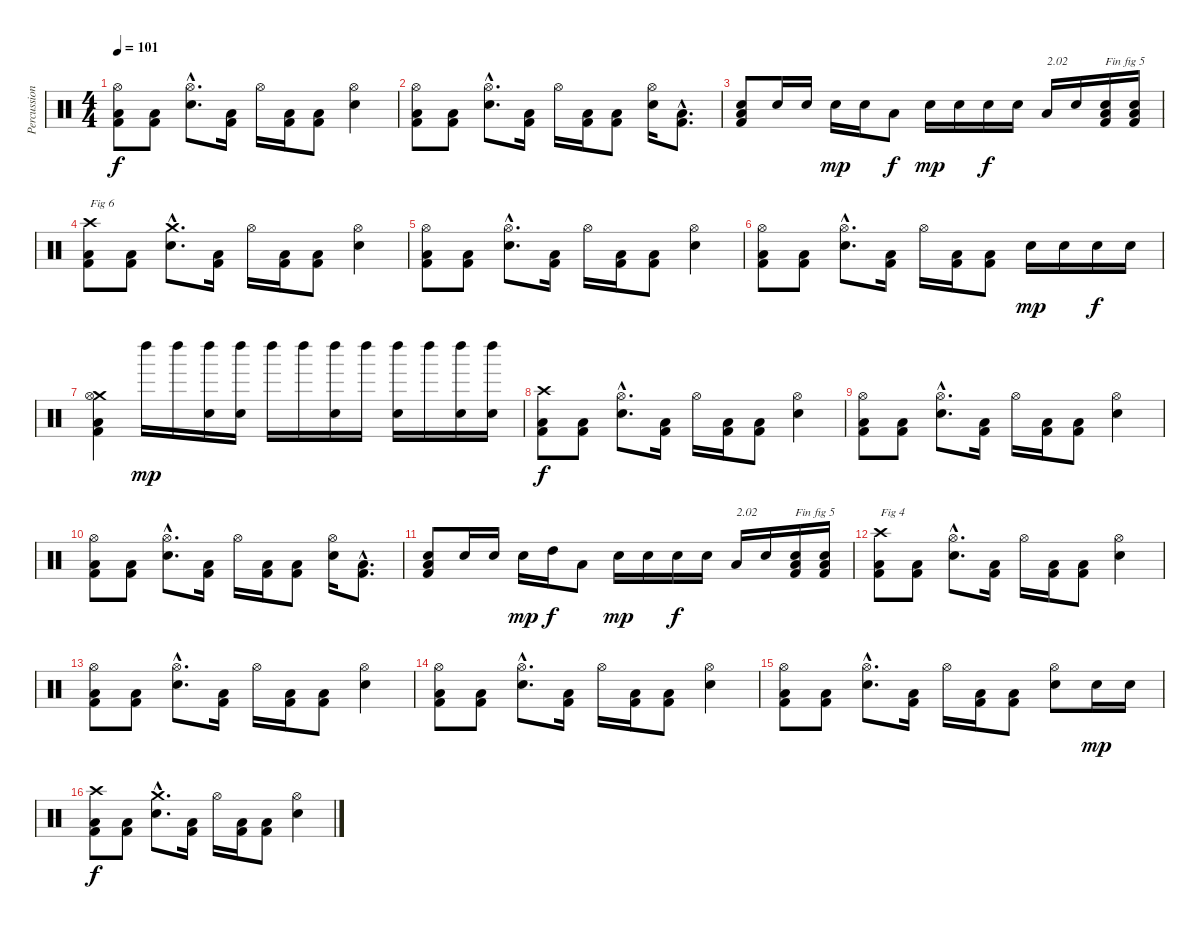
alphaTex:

\track ("Percussion" "Percussion") {instrument percussion}
\staff {score}
\articulation defaults
\ts (4 4)
\tempo 101
\clef neutral
\ks c
("Kick (hit) 2" "Low Floor Tom (hit)" "Hi-Hat (open)").8{dy f} ("Kick (hit) 2" "Low Floor Tom (hit)").8 ("Snare (hit) 2"{hac} "Hi-Hat (open)"{hac}).8{d} ("Kick (hit) 2" "Low Floor Tom (hit)").16 "Hi-Hat (open)".16 ("Kick (hit) 2" "Low Floor Tom (hit)").16 ("Kick (hit) 2" "Low Floor Tom (hit)").8 ("Snare (hit) 2" "Hi-Hat (open)").4 |
("Kick (hit) 2" "Low Floor Tom (hit)" "Hi-Hat (open)").8 ("Kick (hit) 2" "Low Floor Tom (hit)").8 ("Snare (hit) 2"{hac} "Hi-Hat (open)"{hac}).8{d} ("Kick (hit) 2" "Low Floor Tom (hit)").16 "Hi-Hat (open)".16 ("Kick (hit) 2" "Low Floor Tom (hit)").16 ("Kick (hit) 2" "Low Floor Tom (hit)").8 ("Snare (hit) 2" "Hi-Hat (open)").16 ("Kick (hit) 2"{hac} "Low Floor Tom (hit)"{hac}).8{d} |
("Kick (hit) 2" "Low Floor Tom (hit)" "Snare (hit) 2").8 "Snare (hit) 2".16 "Snare (hit) 2".16 "Snare (hit) 2".16{dy mp} "Snare (hit) 2".16 "Low Tom (hit)".8{dy f} "Snare (hit) 2".16{dy mp} "Snare (hit) 2".16 "Snare (hit) 2".16{dy f} "Snare (hit) 2".16 "Low Tom (hit)".16{txt "2.02"} "Snare (hit) 2".16 ("Kick (hit) 2" "Low Floor Tom (hit)" "Snare (hit) 2").16{txt "Fin fig 5"} ("Kick (hit) 2" "Low Floor Tom (hit)" "Snare (hit) 2").16 |
("Kick (hit) 2" "Low Floor Tom (hit)" "Crash high (hit)").8{txt "Fig 6"} ("Kick (hit) 2" "Low Floor Tom (hit)").8 ("Snare (hit) 2"{hac} "Crash medium (hit)"{hac}).8{d} ("Kick (hit) 2" "Low Floor Tom (hit)").16 "Hi-Hat (open)".16 ("Kick (hit) 2" "Low Floor Tom (hit)").16 ("Kick (hit) 2" "Low Floor Tom (hit)").8 ("Snare (hit) 2" "Hi-Hat (open)").4 |
("Kick (hit) 2" "Low Floor Tom (hit)" "Hi-Hat (open)").8 ("Kick (hit) 2" "Low Floor Tom (hit)").8 ("Snare (hit) 2"{hac} "Hi-Hat (open)"{hac}).8{d} ("Kick (hit) 2" "Low Floor Tom (hit)").16 "Hi-Hat (open)".16 ("Kick (hit) 2" "Low Floor Tom (hit)").16 ("Kick (hit) 2" "Low Floor Tom (hit)").8 ("Snare (hit) 2" "Hi-Hat (open)").4 |
("Kick (hit) 2" "Low Floor Tom (hit)" "Hi-Hat (open)").8 ("Kick (hit) 2" "Low Floor Tom (hit)").8 ("Snare (hit) 2"{hac} "Hi-Hat (open)"{hac}).8{d} ("Kick (hit) 2" "Low Floor Tom (hit)").16 "Hi-Hat (open)".16 ("Kick (hit) 2" "Low Floor Tom (hit)").16 ("Kick (hit) 2" "Low Floor Tom (hit)").8 "Snare (hit) 2".16{dy mp} "Snare (hit) 2".16 "Snare (hit) 2".16{dy f} "Snare (hit) 2".16 |
("Kick (hit) 2" "Low Floor Tom (hit)" "Crash medium (hit)" "Hi-Hat (open)").4 "Left Maraca (hit)".16{dy mp} "Left Maraca (hit)".16 ("Snare (hit) 2" "Left Maraca (hit)").16 ("Snare (hit) 2" "Left Maraca (hit)").16 "Left Maraca (hit)".16 "Left Maraca (hit)".16 ("Snare (hit) 2" "Left Maraca (hit)").16 "Left Maraca (hit)".16 ("Snare (hit) 2" "Left Maraca (hit)").16 "Left Maraca (hit)".16 ("Snare (hit) 2" "Left Maraca (hit)").16 ("Snare (hit) 2" "Left Maraca (hit)").16 |
("Kick (hit) 2" "Low Floor Tom (hit)" "Crash high (hit)").8{dy f} ("Kick (hit) 2" "Low Floor Tom (hit)").8 ("Snare (hit) 2"{hac} "Hi-Hat (open)"{hac}).8{d} ("Kick (hit) 2" "Low Floor Tom (hit)").16 "Hi-Hat (open)".16 ("Kick (hit) 2" "Low Floor Tom (hit)").16 ("Kick (hit) 2" "Low Floor Tom (hit)").8 ("Snare (hit) 2" "Hi-Hat (open)").4 |
("Kick (hit) 2" "Low Floor Tom (hit)" "Hi-Hat (open)").8 ("Kick (hit) 2" "Low Floor Tom (hit)").8 ("Snare (hit) 2"{hac} "Hi-Hat (open)"{hac}).8{d} ("Kick (hit) 2" "Low Floor Tom (hit)").16 "Hi-Hat (open)".16 ("Kick (hit) 2" "Low Floor Tom (hit)").16 ("Kick (hit) 2" "Low Floor Tom (hit)").8 ("Snare (hit) 2" "Hi-Hat (open)").4 |
("Kick (hit) 2" "Low Floor Tom (hit)" "Hi-Hat (open)").8 ("Kick (hit) 2" "Low Floor Tom (hit)").8 ("Snare (hit) 2"{hac} "Hi-Hat (open)"{hac}).8{d} ("Kick (hit) 2" "Low Floor Tom (hit)").16 "Hi-Hat (open)".16 ("Kick (hit) 2" "Low Floor Tom (hit)").16 ("Kick (hit) 2" "Low Floor Tom (hit)").8 ("Snare (hit) 2" "Hi-Hat (open)").16 ("Kick (hit) 2"{hac} "Low Floor Tom (hit)"{hac}).8{d} |
("Kick (hit) 2" "Low Floor Tom (hit)" "Snare (hit) 2").8 "Snare (hit) 2".16 "Snare (hit) 2".16 "Snare (hit) 2".16{dy mp} "High Tom (hit)".16{dy f} "Low Tom (hit)".8 "Snare (hit) 2".16{dy mp} "Snare (hit) 2".16 "Snare (hit) 2".16{dy f} "Snare (hit) 2".16 "Low Tom (hit)".16{txt "2.02"} "Snare (hit) 2".16 ("Kick (hit) 2" "Low Floor Tom (hit)" "Snare (hit) 2").16{txt "Fin fig 5"} ("Kick (hit) 2" "Low Floor Tom (hit)" "Snare (hit) 2").16 |
("Kick (hit) 2" "Low Floor Tom (hit)" "Crash high (hit)").8{txt "Fig 4"} ("Kick (hit) 2" "Low Floor Tom (hit)").8 ("Snare (hit) 2"{hac} "Hi-Hat (open)"{hac}).8{d} ("Kick (hit) 2" "Low Floor Tom (hit)").16 "Hi-Hat (open)".16 ("Kick (hit) 2" "Low Floor Tom (hit)").16 ("Kick (hit) 2" "Low Floor Tom (hit)").8 ("Snare (hit) 2" "Hi-Hat (open)").4 |
("Kick (hit) 2" "Low Floor Tom (hit)" "Hi-Hat (open)").8 ("Kick (hit) 2" "Low Floor Tom (hit)").8 ("Snare (hit) 2"{hac} "Hi-Hat (open)"{hac}).8{d} ("Kick (hit) 2" "Low Floor Tom (hit)").16 "Hi-Hat (open)".16 ("Kick (hit) 2" "Low Floor Tom (hit)").16 ("Kick (hit) 2" "Low Floor Tom (hit)").8 ("Snare (hit) 2" "Hi-Hat (open)").4 |
("Kick (hit) 2" "Low Floor Tom (hit)" "Hi-Hat (open)").8 ("Kick (hit) 2" "Low Floor Tom (hit)").8 ("Snare (hit) 2"{hac} "Hi-Hat (open)"{hac}).8{d} ("Kick (hit) 2" "Low Floor Tom (hit)").16 "Hi-Hat (open)".16 ("Kick (hit) 2" "Low Floor Tom (hit)").16 ("Kick (hit) 2" "Low Floor Tom (hit)").8 ("Snare (hit) 2" "Hi-Hat (open)").4 |
("Kick (hit) 2" "Low Floor Tom (hit)" "Hi-Hat (open)").8 ("Kick (hit) 2" "Low Floor Tom (hit)").8 ("Snare (hit) 2"{hac} "Hi-Hat (open)"{hac}).8{d} ("Kick (hit) 2" "Low Floor Tom (hit)").16 "Hi-Hat (open)".16 ("Kick (hit) 2" "Low Floor Tom (hit)").16 ("Kick (hit) 2" "Low Floor Tom (hit)").8 ("Snare (hit) 2" "Hi-Hat (open)").8 "Snare (hit) 2".16{dy mp} "Snare (hit) 2".16 |
("Kick (hit) 2" "Low Floor Tom (hit)" "Crash high (hit)").8{dy f} ("Kick (hit) 2" "Low Floor Tom (hit)").8 ("Snare (hit) 2"{hac} "Crash medium (hit)"{hac}).8{d} ("Kick (hit) 2" "Low Floor Tom (hit)").16 "Hi-Hat (open)".16 ("Kick (hit) 2" "Low Floor Tom (hit)").16 ("Kick (hit) 2" "Low Floor Tom (hit)").8 ("Snare (hit) 2" "Hi-Hat (open)").4
